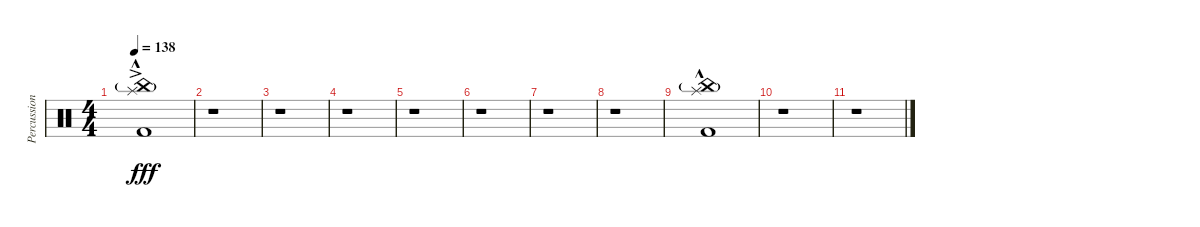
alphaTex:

\track ("Percussions" "Percussion") {instrument percussion}
\staff {score}
\articulation defaults
\ts (4 4)
\tempo 138
\clef neutral
\ks c
("Splash (hit)"{ac} "China (hit)"{g} "Kick (hit) 2"{hac}).1{dy fff} |
r.1 |
r.1 |
r.1 |
r.1 |
r.1 |
r.1 |
r.1 |
("Splash (hit)"{hac} "China (hit)"{g} "Kick (hit) 2"{hac}).1 |
r.1 |
r.1
